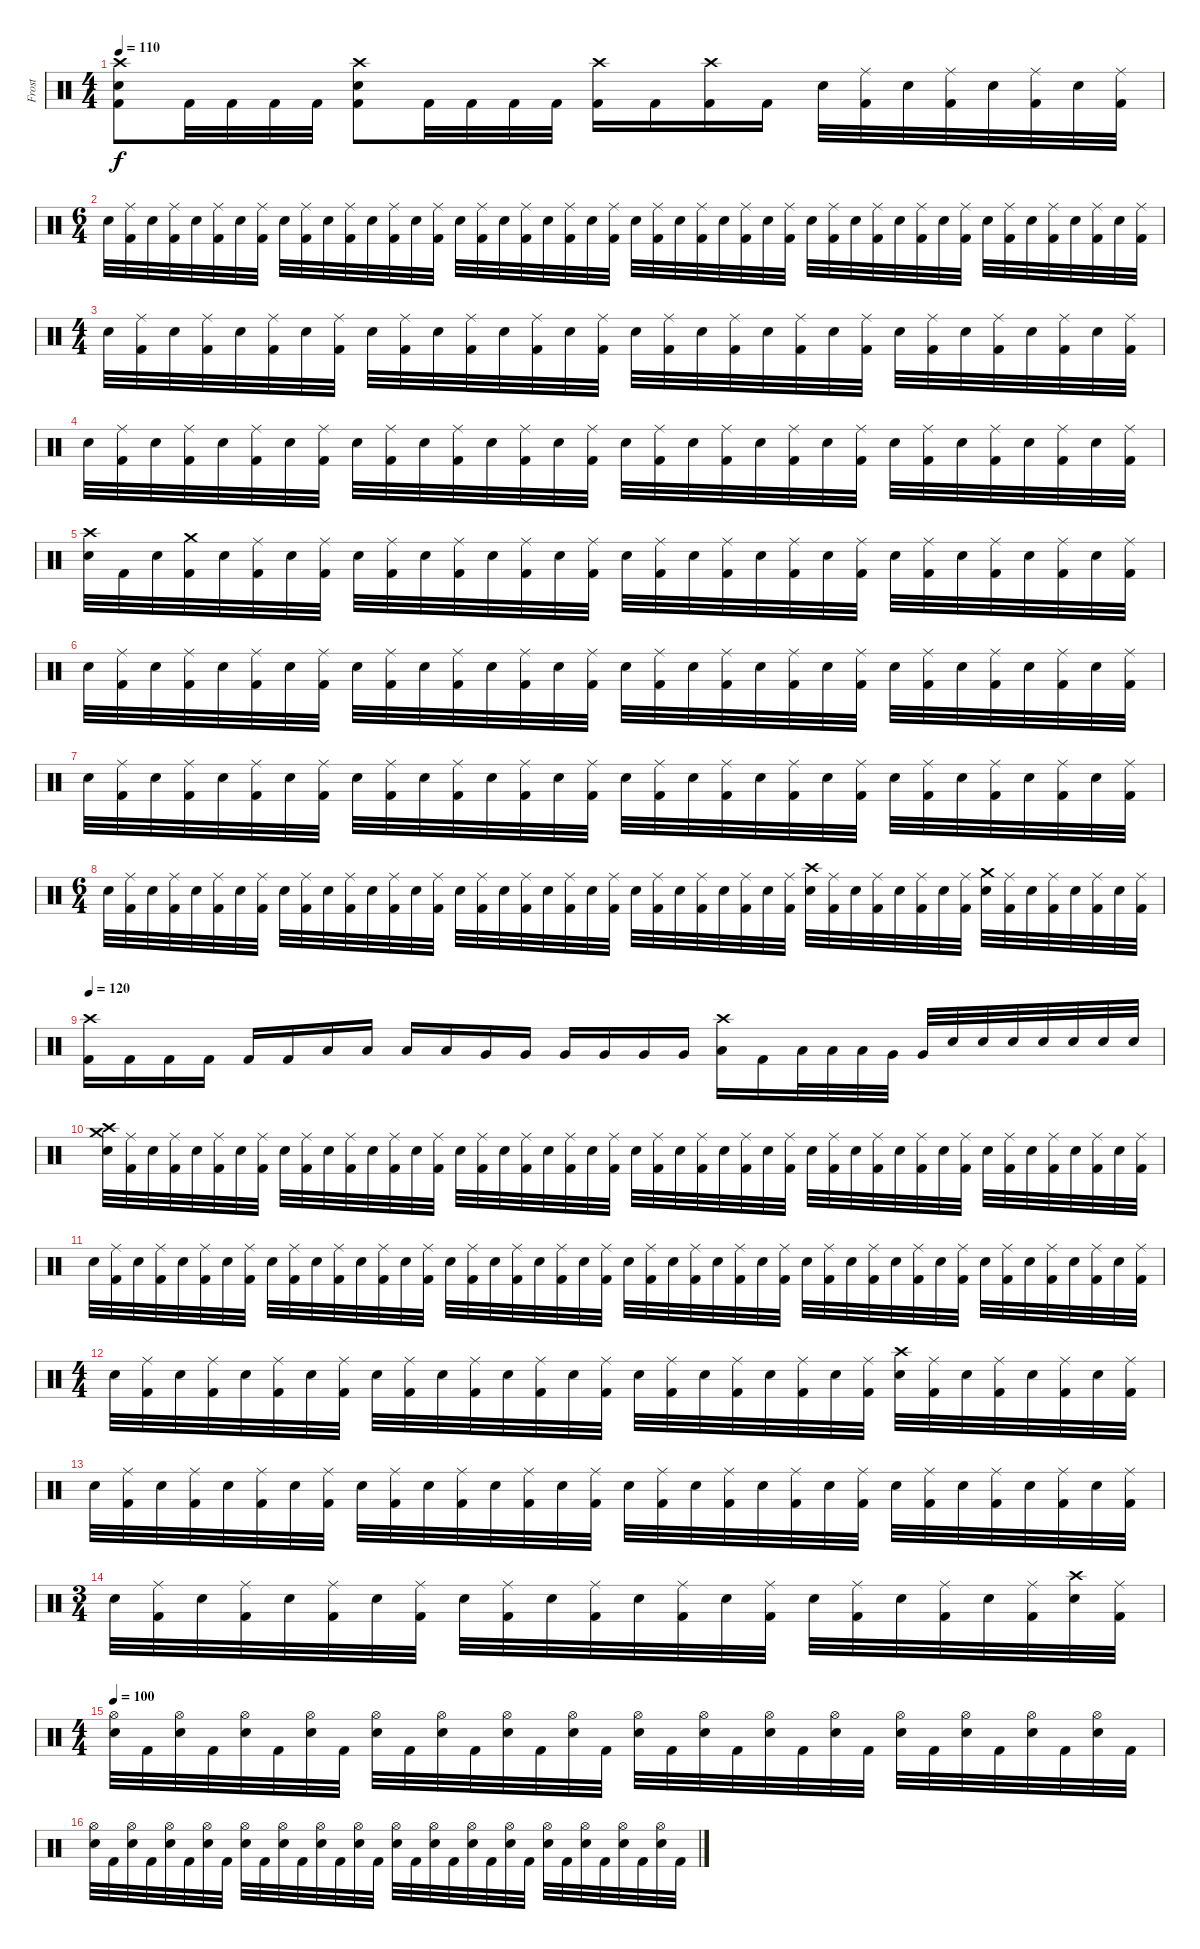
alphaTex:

\track ("Frost" "Frost") {instrument percussion}
\staff {score}
\articulation defaults
\ts (4 4)
\tempo 110
\clef neutral
\ks c
("Crash high (hit)" "Snare (hit) 2" "Kick (hit) 2").8{dy f} "Kick (hit) 2".32 "Kick (hit) 2".32 "Kick (hit) 2".32 "Kick (hit) 2".32 ("Crash high (hit)" "Snare (hit) 2" "Kick (hit) 2").8 "Kick (hit) 2".32 "Kick (hit) 2".32 "Kick (hit) 2".32 "Kick (hit) 2".32 ("Crash high (hit)" "Kick (hit) 2").16 "Kick (hit) 2".16 ("Crash high (hit)" "Kick (hit) 2").16 "Kick (hit) 2".16 "Snare (hit) 2".32 ("Ride (middle)" "Kick (hit) 2").32 "Snare (hit) 2".32 ("Ride (middle)" "Kick (hit) 2").32 "Snare (hit) 2".32 ("Ride (middle)" "Kick (hit) 2").32 "Snare (hit) 2".32 ("Ride (middle)" "Kick (hit) 2").32 |
\ts (6 4)
"Snare (hit) 2".32 ("Ride (middle)" "Kick (hit) 2").32 "Snare (hit) 2".32 ("Ride (middle)" "Kick (hit) 2").32 "Snare (hit) 2".32 ("Ride (middle)" "Kick (hit) 2").32 "Snare (hit) 2".32 ("Ride (middle)" "Kick (hit) 2").32 "Snare (hit) 2".32 ("Ride (middle)" "Kick (hit) 2").32 "Snare (hit) 2".32 ("Ride (middle)" "Kick (hit) 2").32 "Snare (hit) 2".32 ("Ride (middle)" "Kick (hit) 2").32 "Snare (hit) 2".32 ("Ride (middle)" "Kick (hit) 2").32 "Snare (hit) 2".32 ("Ride (middle)" "Kick (hit) 2").32 "Snare (hit) 2".32 ("Ride (middle)" "Kick (hit) 2").32 "Snare (hit) 2".32 ("Ride (middle)" "Kick (hit) 2").32 "Snare (hit) 2".32 ("Ride (middle)" "Kick (hit) 2").32 "Snare (hit) 2".32 ("Ride (middle)" "Kick (hit) 2").32 "Snare (hit) 2".32 ("Ride (middle)" "Kick (hit) 2").32 "Snare (hit) 2".32 ("Ride (middle)" "Kick (hit) 2").32 "Snare (hit) 2".32 ("Ride (middle)" "Kick (hit) 2").32 "Snare (hit) 2".32 ("Ride (middle)" "Kick (hit) 2").32 "Snare (hit) 2".32 ("Ride (middle)" "Kick (hit) 2").32 "Snare (hit) 2".32 ("Ride (middle)" "Kick (hit) 2").32 "Snare (hit) 2".32 ("Ride (middle)" "Kick (hit) 2").32 "Snare (hit) 2".32 ("Ride (middle)" "Kick (hit) 2").32 "Snare (hit) 2".32 ("Ride (middle)" "Kick (hit) 2").32 "Snare (hit) 2".32 ("Ride (middle)" "Kick (hit) 2").32 "Snare (hit) 2".32 ("Ride (middle)" "Kick (hit) 2").32 |
\ts (4 4)
"Snare (hit) 2".32 ("Ride (middle)" "Kick (hit) 2").32 "Snare (hit) 2".32 ("Ride (middle)" "Kick (hit) 2").32 "Snare (hit) 2".32 ("Ride (middle)" "Kick (hit) 2").32 "Snare (hit) 2".32 ("Ride (middle)" "Kick (hit) 2").32 "Snare (hit) 2".32 ("Ride (middle)" "Kick (hit) 2").32 "Snare (hit) 2".32 ("Ride (middle)" "Kick (hit) 2").32 "Snare (hit) 2".32 ("Ride (middle)" "Kick (hit) 2").32 "Snare (hit) 2".32 ("Ride (middle)" "Kick (hit) 2").32 "Snare (hit) 2".32 ("Ride (middle)" "Kick (hit) 2").32 "Snare (hit) 2".32 ("Ride (middle)" "Kick (hit) 2").32 "Snare (hit) 2".32 ("Ride (middle)" "Kick (hit) 2").32 "Snare (hit) 2".32 ("Ride (middle)" "Kick (hit) 2").32 "Snare (hit) 2".32 ("Ride (middle)" "Kick (hit) 2").32 "Snare (hit) 2".32 ("Ride (middle)" "Kick (hit) 2").32 "Snare (hit) 2".32 ("Ride (middle)" "Kick (hit) 2").32 "Snare (hit) 2".32 ("Ride (middle)" "Kick (hit) 2").32 |
"Snare (hit) 2".32 ("Ride (middle)" "Kick (hit) 2").32 "Snare (hit) 2".32 ("Ride (middle)" "Kick (hit) 2").32 "Snare (hit) 2".32 ("Ride (middle)" "Kick (hit) 2").32 "Snare (hit) 2".32 ("Ride (middle)" "Kick (hit) 2").32 "Snare (hit) 2".32 ("Ride (middle)" "Kick (hit) 2").32 "Snare (hit) 2".32 ("Ride (middle)" "Kick (hit) 2").32 "Snare (hit) 2".32 ("Ride (middle)" "Kick (hit) 2").32 "Snare (hit) 2".32 ("Ride (middle)" "Kick (hit) 2").32 "Snare (hit) 2".32 ("Ride (middle)" "Kick (hit) 2").32 "Snare (hit) 2".32 ("Ride (middle)" "Kick (hit) 2").32 "Snare (hit) 2".32 ("Ride (middle)" "Kick (hit) 2").32 "Snare (hit) 2".32 ("Ride (middle)" "Kick (hit) 2").32 "Snare (hit) 2".32 ("Ride (middle)" "Kick (hit) 2").32 "Snare (hit) 2".32 ("Ride (middle)" "Kick (hit) 2").32 "Snare (hit) 2".32 ("Ride (middle)" "Kick (hit) 2").32 "Snare (hit) 2".32 ("Ride (middle)" "Kick (hit) 2").32 |
("Crash high (hit)" "Snare (hit) 2").32 "Kick (hit) 2".32 "Snare (hit) 2".32 ("Crash medium (hit)" "Kick (hit) 2").32 "Snare (hit) 2".32 ("Ride (middle)" "Kick (hit) 2").32 "Snare (hit) 2".32 ("Ride (middle)" "Kick (hit) 2").32 "Snare (hit) 2".32 ("Ride (middle)" "Kick (hit) 2").32 "Snare (hit) 2".32 ("Ride (middle)" "Kick (hit) 2").32 "Snare (hit) 2".32 ("Ride (middle)" "Kick (hit) 2").32 "Snare (hit) 2".32 ("Ride (middle)" "Kick (hit) 2").32 "Snare (hit) 2".32 ("Ride (middle)" "Kick (hit) 2").32 "Snare (hit) 2".32 ("Ride (middle)" "Kick (hit) 2").32 "Snare (hit) 2".32 ("Ride (middle)" "Kick (hit) 2").32 "Snare (hit) 2".32 ("Ride (middle)" "Kick (hit) 2").32 "Snare (hit) 2".32 ("Ride (middle)" "Kick (hit) 2").32 "Snare (hit) 2".32 ("Ride (middle)" "Kick (hit) 2").32 "Snare (hit) 2".32 ("Ride (middle)" "Kick (hit) 2").32 "Snare (hit) 2".32 ("Ride (middle)" "Kick (hit) 2").32 |
"Snare (hit) 2".32 ("Ride (middle)" "Kick (hit) 2").32 "Snare (hit) 2".32 ("Ride (middle)" "Kick (hit) 2").32 "Snare (hit) 2".32 ("Ride (middle)" "Kick (hit) 2").32 "Snare (hit) 2".32 ("Ride (middle)" "Kick (hit) 2").32 "Snare (hit) 2".32 ("Ride (middle)" "Kick (hit) 2").32 "Snare (hit) 2".32 ("Ride (middle)" "Kick (hit) 2").32 "Snare (hit) 2".32 ("Ride (middle)" "Kick (hit) 2").32 "Snare (hit) 2".32 ("Ride (middle)" "Kick (hit) 2").32 "Snare (hit) 2".32 ("Ride (middle)" "Kick (hit) 2").32 "Snare (hit) 2".32 ("Ride (middle)" "Kick (hit) 2").32 "Snare (hit) 2".32 ("Ride (middle)" "Kick (hit) 2").32 "Snare (hit) 2".32 ("Ride (middle)" "Kick (hit) 2").32 "Snare (hit) 2".32 ("Ride (middle)" "Kick (hit) 2").32 "Snare (hit) 2".32 ("Ride (middle)" "Kick (hit) 2").32 "Snare (hit) 2".32 ("Ride (middle)" "Kick (hit) 2").32 "Snare (hit) 2".32 ("Ride (middle)" "Kick (hit) 2").32 |
"Snare (hit) 2".32 ("Ride (middle)" "Kick (hit) 2").32 "Snare (hit) 2".32 ("Ride (middle)" "Kick (hit) 2").32 "Snare (hit) 2".32 ("Ride (middle)" "Kick (hit) 2").32 "Snare (hit) 2".32 ("Ride (middle)" "Kick (hit) 2").32 "Snare (hit) 2".32 ("Ride (middle)" "Kick (hit) 2").32 "Snare (hit) 2".32 ("Ride (middle)" "Kick (hit) 2").32 "Snare (hit) 2".32 ("Ride (middle)" "Kick (hit) 2").32 "Snare (hit) 2".32 ("Ride (middle)" "Kick (hit) 2").32 "Snare (hit) 2".32 ("Ride (middle)" "Kick (hit) 2").32 "Snare (hit) 2".32 ("Ride (middle)" "Kick (hit) 2").32 "Snare (hit) 2".32 ("Ride (middle)" "Kick (hit) 2").32 "Snare (hit) 2".32 ("Ride (middle)" "Kick (hit) 2").32 "Snare (hit) 2".32 ("Ride (middle)" "Kick (hit) 2").32 "Snare (hit) 2".32 ("Ride (middle)" "Kick (hit) 2").32 "Snare (hit) 2".32 ("Ride (middle)" "Kick (hit) 2").32 "Snare (hit) 2".32 ("Ride (middle)" "Kick (hit) 2").32 |
\ts (6 4)
"Snare (hit) 2".32 ("Ride (middle)" "Kick (hit) 2").32 "Snare (hit) 2".32 ("Ride (middle)" "Kick (hit) 2").32 "Snare (hit) 2".32 ("Ride (middle)" "Kick (hit) 2").32 "Snare (hit) 2".32 ("Ride (middle)" "Kick (hit) 2").32 "Snare (hit) 2".32 ("Ride (middle)" "Kick (hit) 2").32 "Snare (hit) 2".32 ("Ride (middle)" "Kick (hit) 2").32 "Snare (hit) 2".32 ("Ride (middle)" "Kick (hit) 2").32 "Snare (hit) 2".32 ("Ride (middle)" "Kick (hit) 2").32 "Snare (hit) 2".32 ("Ride (middle)" "Kick (hit) 2").32 "Snare (hit) 2".32 ("Ride (middle)" "Kick (hit) 2").32 "Snare (hit) 2".32 ("Ride (middle)" "Kick (hit) 2").32 "Snare (hit) 2".32 ("Ride (middle)" "Kick (hit) 2").32 "Snare (hit) 2".32 ("Ride (middle)" "Kick (hit) 2").32 "Snare (hit) 2".32 ("Ride (middle)" "Kick (hit) 2").32 "Snare (hit) 2".32 ("Ride (middle)" "Kick (hit) 2").32 "Snare (hit) 2".32 ("Ride (middle)" "Kick (hit) 2").32 ("Crash high (hit)" "Snare (hit) 2").32 ("Ride (middle)" "Kick (hit) 2").32 "Snare (hit) 2".32 ("Ride (middle)" "Kick (hit) 2").32 "Snare (hit) 2".32 ("Ride (middle)" "Kick (hit) 2").32 "Snare (hit) 2".32 ("Ride (middle)" "Kick (hit) 2").32 ("Crash medium (hit)" "Snare (hit) 2").32 ("Ride (middle)" "Kick (hit) 2").32 "Snare (hit) 2".32 ("Ride (middle)" "Kick (hit) 2").32 "Snare (hit) 2".32 ("Ride (middle)" "Kick (hit) 2").32 "Snare (hit) 2".32 ("Ride (middle)" "Kick (hit) 2").32 |
\tempo 120
("Crash high (hit)" "Kick (hit) 2").16 "Kick (hit) 2".16 "Kick (hit) 2".16 "Kick (hit) 2".16 "Kick (hit) 2".16 "Kick (hit) 2".16 "Low Tom (hit)".16 "Low Tom (hit)".16 "Low Tom (hit)".16 "Low Tom (hit)".16 "Very Low Tom (hit)".16 "Very Low Tom (hit)".16 "Very Low Tom (hit)".16 "Very Low Tom (hit)".16 "Very Low Tom (hit)".16 "Very Low Tom (hit)".16 ("Crash high (hit)" "Low Floor Tom (hit)").16 "Kick (hit) 2".16 "Low Tom (hit)".32 "Low Tom (hit)".32 "Low Tom (hit)".32 "Very Low Tom (hit)".32 "Very Low Tom (hit)".32 "Snare (hit) 2".32 "Snare (hit) 2".32 "Snare (hit) 2".32 "Snare (hit) 2".32 "Snare (hit) 2".32 "Snare (hit) 2".32 "Snare (hit) 2".32 |
("Crash high (hit)" "Crash medium (hit)" "Snare (hit) 2").32 ("Ride (middle)" "Kick (hit) 2").32 "Snare (hit) 2".32 ("Ride (middle)" "Kick (hit) 2").32 "Snare (hit) 2".32 ("Ride (middle)" "Kick (hit) 2").32 "Snare (hit) 2".32 ("Ride (middle)" "Kick (hit) 2").32 "Snare (hit) 2".32 ("Ride (middle)" "Kick (hit) 2").32 "Snare (hit) 2".32 ("Ride (middle)" "Kick (hit) 2").32 "Snare (hit) 2".32 ("Ride (middle)" "Kick (hit) 2").32 "Snare (hit) 2".32 ("Ride (middle)" "Kick (hit) 2").32 "Snare (hit) 2".32 ("Ride (middle)" "Kick (hit) 2").32 "Snare (hit) 2".32 ("Ride (middle)" "Kick (hit) 2").32 "Snare (hit) 2".32 ("Ride (middle)" "Kick (hit) 2").32 "Snare (hit) 2".32 ("Ride (middle)" "Kick (hit) 2").32 "Snare (hit) 2".32 ("Ride (middle)" "Kick (hit) 2").32 "Snare (hit) 2".32 ("Ride (middle)" "Kick (hit) 2").32 "Snare (hit) 2".32 ("Ride (middle)" "Kick (hit) 2").32 "Snare (hit) 2".32 ("Ride (middle)" "Kick (hit) 2").32 "Snare (hit) 2".32 ("Ride (middle)" "Kick (hit) 2").32 "Snare (hit) 2".32 ("Ride (middle)" "Kick (hit) 2").32 "Snare (hit) 2".32 ("Ride (middle)" "Kick (hit) 2").32 "Snare (hit) 2".32 ("Ride (middle)" "Kick (hit) 2").32 "Snare (hit) 2".32 ("Ride (middle)" "Kick (hit) 2").32 "Snare (hit) 2".32 ("Ride (middle)" "Kick (hit) 2").32 "Snare (hit) 2".32 ("Ride (middle)" "Kick (hit) 2").32 "Snare (hit) 2".32 ("Ride (middle)" "Kick (hit) 2").32 |
"Snare (hit) 2".32 ("Ride (middle)" "Kick (hit) 2").32 "Snare (hit) 2".32 ("Ride (middle)" "Kick (hit) 2").32 "Snare (hit) 2".32 ("Ride (middle)" "Kick (hit) 2").32 "Snare (hit) 2".32 ("Ride (middle)" "Kick (hit) 2").32 "Snare (hit) 2".32 ("Ride (middle)" "Kick (hit) 2").32 "Snare (hit) 2".32 ("Ride (middle)" "Kick (hit) 2").32 "Snare (hit) 2".32 ("Ride (middle)" "Kick (hit) 2").32 "Snare (hit) 2".32 ("Ride (middle)" "Kick (hit) 2").32 "Snare (hit) 2".32 ("Ride (middle)" "Kick (hit) 2").32 "Snare (hit) 2".32 ("Ride (middle)" "Kick (hit) 2").32 "Snare (hit) 2".32 ("Ride (middle)" "Kick (hit) 2").32 "Snare (hit) 2".32 ("Ride (middle)" "Kick (hit) 2").32 "Snare (hit) 2".32 ("Ride (middle)" "Kick (hit) 2").32 "Snare (hit) 2".32 ("Ride (middle)" "Kick (hit) 2").32 "Snare (hit) 2".32 ("Ride (middle)" "Kick (hit) 2").32 "Snare (hit) 2".32 ("Ride (middle)" "Kick (hit) 2").32 "Snare (hit) 2".32 ("Ride (middle)" "Kick (hit) 2").32 "Snare (hit) 2".32 ("Ride (middle)" "Kick (hit) 2").32 "Snare (hit) 2".32 ("Ride (middle)" "Kick (hit) 2").32 "Snare (hit) 2".32 ("Ride (middle)" "Kick (hit) 2").32 "Snare (hit) 2".32 ("Ride (middle)" "Kick (hit) 2").32 "Snare (hit) 2".32 ("Ride (middle)" "Kick (hit) 2").32 "Snare (hit) 2".32 ("Ride (middle)" "Kick (hit) 2").32 "Snare (hit) 2".32 ("Ride (middle)" "Kick (hit) 2").32 |
\ts (4 4)
"Snare (hit) 2".32 ("Ride (middle)" "Kick (hit) 2").32 "Snare (hit) 2".32 ("Ride (middle)" "Kick (hit) 2").32 "Snare (hit) 2".32 ("Ride (middle)" "Kick (hit) 2").32 "Snare (hit) 2".32 ("Ride (middle)" "Kick (hit) 2").32 "Snare (hit) 2".32 ("Ride (middle)" "Kick (hit) 2").32 "Snare (hit) 2".32 ("Ride (middle)" "Kick (hit) 2").32 "Snare (hit) 2".32 ("Ride (middle)" "Kick (hit) 2").32 "Snare (hit) 2".32 ("Ride (middle)" "Kick (hit) 2").32 "Snare (hit) 2".32 ("Ride (middle)" "Kick (hit) 2").32 "Snare (hit) 2".32 ("Ride (middle)" "Kick (hit) 2").32 "Snare (hit) 2".32 ("Ride (middle)" "Kick (hit) 2").32 "Snare (hit) 2".32 ("Ride (middle)" "Kick (hit) 2").32 ("Crash high (hit)" "Snare (hit) 2").32 ("Ride (middle)" "Kick (hit) 2").32 "Snare (hit) 2".32 ("Ride (middle)" "Kick (hit) 2").32 "Snare (hit) 2".32 ("Ride (middle)" "Kick (hit) 2").32 "Snare (hit) 2".32 ("Ride (middle)" "Kick (hit) 2").32 |
"Snare (hit) 2".32 ("Ride (middle)" "Kick (hit) 2").32 "Snare (hit) 2".32 ("Ride (middle)" "Kick (hit) 2").32 "Snare (hit) 2".32 ("Ride (middle)" "Kick (hit) 2").32 "Snare (hit) 2".32 ("Ride (middle)" "Kick (hit) 2").32 "Snare (hit) 2".32 ("Ride (middle)" "Kick (hit) 2").32 "Snare (hit) 2".32 ("Ride (middle)" "Kick (hit) 2").32 "Snare (hit) 2".32 ("Ride (middle)" "Kick (hit) 2").32 "Snare (hit) 2".32 ("Ride (middle)" "Kick (hit) 2").32 "Snare (hit) 2".32 ("Ride (middle)" "Kick (hit) 2").32 "Snare (hit) 2".32 ("Ride (middle)" "Kick (hit) 2").32 "Snare (hit) 2".32 ("Ride (middle)" "Kick (hit) 2").32 "Snare (hit) 2".32 ("Ride (middle)" "Kick (hit) 2").32 "Snare (hit) 2".32 ("Ride (middle)" "Kick (hit) 2").32 "Snare (hit) 2".32 ("Ride (middle)" "Kick (hit) 2").32 "Snare (hit) 2".32 ("Ride (middle)" "Kick (hit) 2").32 "Snare (hit) 2".32 ("Ride (middle)" "Kick (hit) 2").32 |
\ts (3 4)
"Snare (hit) 2".32 ("Ride (middle)" "Kick (hit) 2").32 "Snare (hit) 2".32 ("Ride (middle)" "Kick (hit) 2").32 "Snare (hit) 2".32 ("Ride (middle)" "Kick (hit) 2").32 "Snare (hit) 2".32 ("Ride (middle)" "Kick (hit) 2").32 "Snare (hit) 2".32 ("Ride (middle)" "Kick (hit) 2").32 "Snare (hit) 2".32 ("Ride (middle)" "Kick (hit) 2").32 "Snare (hit) 2".32 ("Ride (middle)" "Kick (hit) 2").32 "Snare (hit) 2".32 ("Ride (middle)" "Kick (hit) 2").32 "Snare (hit) 2".32 ("Ride (middle)" "Kick (hit) 2").32 "Snare (hit) 2".32 ("Ride (middle)" "Kick (hit) 2").32 "Snare (hit) 2".32 ("Ride (middle)" "Kick (hit) 2").32 ("Crash high (hit)" "Snare (hit) 2").32 ("Ride (middle)" "Kick (hit) 2").32 |
\ts (4 4)
\tempo 100
("Hi-Hat (open)" "Snare (hit) 2").32 "Kick (hit) 2".32 ("Hi-Hat (open)" "Snare (hit) 2").32 "Kick (hit) 2".32 ("Hi-Hat (open)" "Snare (hit) 2").32 "Kick (hit) 2".32 ("Hi-Hat (open)" "Snare (hit) 2").32 "Kick (hit) 2".32 ("Hi-Hat (open)" "Snare (hit) 2").32 "Kick (hit) 2".32 ("Hi-Hat (open)" "Snare (hit) 2").32 "Kick (hit) 2".32 ("Hi-Hat (open)" "Snare (hit) 2").32 "Kick (hit) 2".32 ("Hi-Hat (open)" "Snare (hit) 2").32 "Kick (hit) 2".32 ("Hi-Hat (open)" "Snare (hit) 2").32 "Kick (hit) 2".32 ("Hi-Hat (open)" "Snare (hit) 2").32 "Kick (hit) 2".32 ("Hi-Hat (open)" "Snare (hit) 2").32 "Kick (hit) 2".32 ("Hi-Hat (open)" "Snare (hit) 2").32 "Kick (hit) 2".32 ("Hi-Hat (open)" "Snare (hit) 2").32 "Kick (hit) 2".32 ("Hi-Hat (open)" "Snare (hit) 2").32 "Kick (hit) 2".32 ("Hi-Hat (open)" "Snare (hit) 2").32 "Kick (hit) 2".32 ("Hi-Hat (open)" "Snare (hit) 2").32 "Kick (hit) 2".32 |
("Hi-Hat (open)" "Snare (hit) 2").32 "Kick (hit) 2".32 ("Hi-Hat (open)" "Snare (hit) 2").32 "Kick (hit) 2".32 ("Hi-Hat (open)" "Snare (hit) 2").32 "Kick (hit) 2".32 ("Hi-Hat (open)" "Snare (hit) 2").32 "Kick (hit) 2".32 ("Hi-Hat (open)" "Snare (hit) 2").32 "Kick (hit) 2".32 ("Hi-Hat (open)" "Snare (hit) 2").32 "Kick (hit) 2".32 ("Hi-Hat (open)" "Snare (hit) 2").32 "Kick (hit) 2".32 ("Hi-Hat (open)" "Snare (hit) 2").32 "Kick (hit) 2".32 ("Hi-Hat (open)" "Snare (hit) 2").32 "Kick (hit) 2".32 ("Hi-Hat (open)" "Snare (hit) 2").32 "Kick (hit) 2".32 ("Hi-Hat (open)" "Snare (hit) 2").32 "Kick (hit) 2".32 ("Hi-Hat (open)" "Snare (hit) 2").32 "Kick (hit) 2".32 ("Hi-Hat (open)" "Snare (hit) 2").32 "Kick (hit) 2".32 ("Hi-Hat (open)" "Snare (hit) 2").32 "Kick (hit) 2".32 ("Hi-Hat (open)" "Snare (hit) 2").32 "Kick (hit) 2".32 ("Hi-Hat (open)" "Snare (hit) 2").32 "Kick (hit) 2".32
